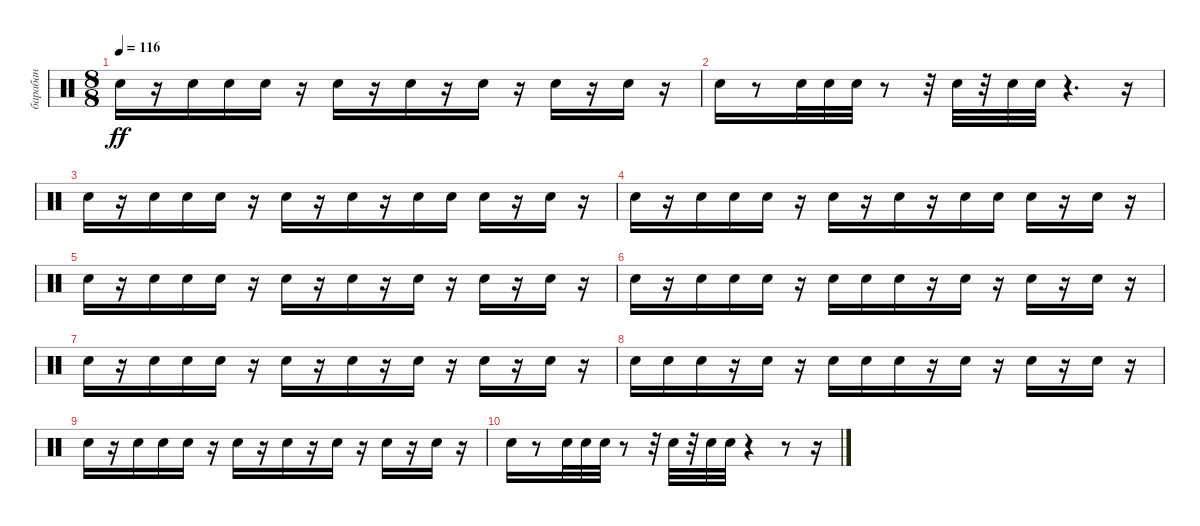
\track ("барабан" "барабан") {instrument percussion}
\staff {score}
\articulation defaults
\ts (8 8)
\tempo 116
\clef neutral
\ks c "Snare (hit) 2".16{dy ff}
r.16 "Snare (hit) 2".16 "Snare (hit) 2".16 "Snare (hit) 2".16 r.16 "Snare (hit) 2".16 r.16 "Snare (hit) 2".16 r.16 "Snare (hit) 2".16 r.16 "Snare (hit) 2".16 r.16 "Snare (hit) 2".16 r.16 |
"Snare (hit) 2".16 r.8 "Snare (hit) 2".32 "Snare (hit) 2".32 "Snare (hit) 2".32 r.8 r.32 "Snare (hit) 2".32 r.32 "Snare (hit) 2".32 "Snare (hit) 2".32 r.4{d} r.16 |
"Snare (hit) 2".16 r.16 "Snare (hit) 2".16 "Snare (hit) 2".16 "Snare (hit) 2".16 r.16 "Snare (hit) 2".16 r.16 "Snare (hit) 2".16 r.16 "Snare (hit) 2".16 "Snare (hit) 2".16 "Snare (hit) 2".16 r.16 "Snare (hit) 2".16 r.16 |
"Snare (hit) 2".16 r.16 "Snare (hit) 2".16 "Snare (hit) 2".16 "Snare (hit) 2".16 r.16 "Snare (hit) 2".16 r.16 "Snare (hit) 2".16 r.16 "Snare (hit) 2".16 "Snare (hit) 2".16 "Snare (hit) 2".16 r.16 "Snare (hit) 2".16 r.16 |
"Snare (hit) 2".16 r.16 "Snare (hit) 2".16 "Snare (hit) 2".16 "Snare (hit) 2".16 r.16 "Snare (hit) 2".16 r.16 "Snare (hit) 2".16 r.16 "Snare (hit) 2".16 r.16 "Snare (hit) 2".16 r.16 "Snare (hit) 2".16 r.16 |
"Snare (hit) 2".16 r.16 "Snare (hit) 2".16 "Snare (hit) 2".16 "Snare (hit) 2".16 r.16 "Snare (hit) 2".16 "Snare (hit) 2".16 "Snare (hit) 2".16 r.16 "Snare (hit) 2".16 r.16 "Snare (hit) 2".16 r.16 "Snare (hit) 2".16 r.16 |
"Snare (hit) 2".16 r.16 "Snare (hit) 2".16 "Snare (hit) 2".16 "Snare (hit) 2".16 r.16 "Snare (hit) 2".16 r.16 "Snare (hit) 2".16 r.16 "Snare (hit) 2".16 r.16 "Snare (hit) 2".16 r.16 "Snare (hit) 2".16 r.16 |
"Snare (hit) 2".16 "Snare (hit) 2".16 "Snare (hit) 2".16 r.16 "Snare (hit) 2".16 r.16 "Snare (hit) 2".16 "Snare (hit) 2".16 "Snare (hit) 2".16 r.16 "Snare (hit) 2".16 r.16 "Snare (hit) 2".16 r.16 "Snare (hit) 2".16 r.16 |
"Snare (hit) 2".16 r.16 "Snare (hit) 2".16 "Snare (hit) 2".16 "Snare (hit) 2".16 r.16 "Snare (hit) 2".16 r.16 "Snare (hit) 2".16 r.16 "Snare (hit) 2".16 r.16 "Snare (hit) 2".16 r.16 "Snare (hit) 2".16 r.16 |
"Snare (hit) 2".16 r.8 "Snare (hit) 2".32 "Snare (hit) 2".32 "Snare (hit) 2".32 r.8 r.32 "Snare (hit) 2".32 r.32 "Snare (hit) 2".32 "Snare (hit) 2".32 r.4 r.8 r.16
